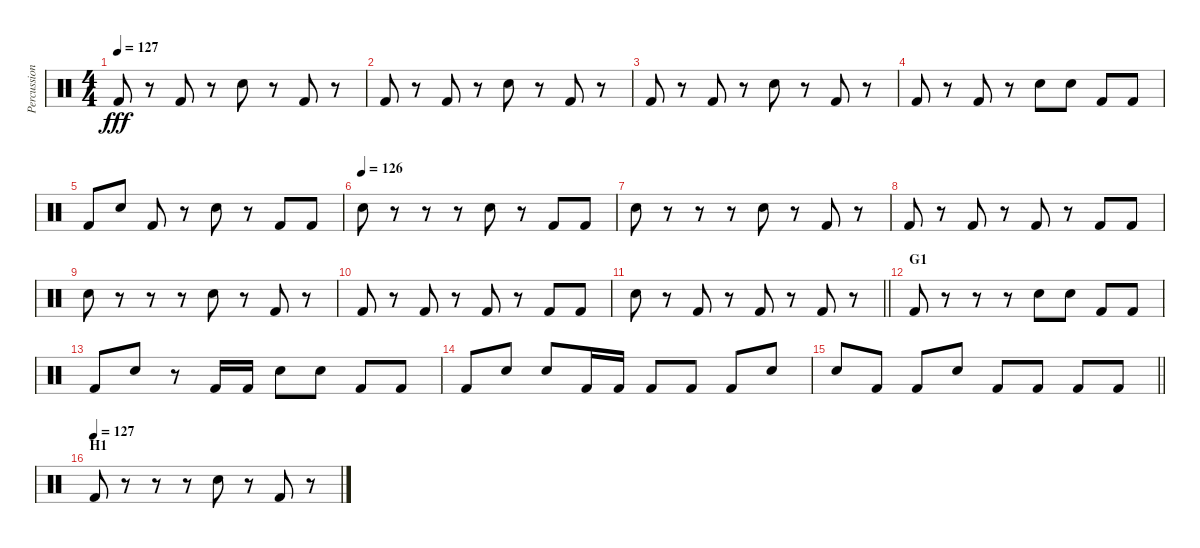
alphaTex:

\track ("Percussion" "Percussion") {instrument percussion}
\staff {score}
\articulation defaults
\ts (4 4)
\tempo 127
\clef neutral
\ks c "Kick (hit) 2".8{dy fff}
r.8 "Kick (hit) 2".8 r.8 "Electric Snare (hit)".8 r.8 "Kick (hit) 2".8 r.8 |
"Kick (hit) 2".8 r.8 "Kick (hit) 2".8 r.8 "Electric Snare (hit)".8 r.8 "Kick (hit) 2".8 r.8 |
"Kick (hit) 2".8 r.8 "Kick (hit) 2".8 r.8 "Electric Snare (hit)".8 r.8 "Kick (hit) 2".8 r.8 |
"Kick (hit) 2".8 r.8 "Kick (hit) 2".8 r.8 "Electric Snare (hit)".8 "Electric Snare (hit)".8 "Kick (hit) 2".8 "Kick (hit) 2".8 |
"Kick (hit) 2".8 "Electric Snare (hit)".8 "Kick (hit) 2".8 r.8 "Electric Snare (hit)".8 r.8 "Kick (hit) 2".8 "Kick (hit) 2".8 |
\tempo (126)
"Electric Snare (hit)".8 r.8 r.8 r.8 "Electric Snare (hit)".8 r.8 "Kick (hit) 2".8 "Kick (hit) 2".8 |
"Electric Snare (hit)".8 r.8 r.8 r.8 "Electric Snare (hit)".8 r.8 "Kick (hit) 2".8 r.8 |
"Kick (hit) 2".8 r.8 "Kick (hit) 2".8 r.8 "Kick (hit) 2".8 r.8 "Kick (hit) 2".8 "Kick (hit) 2".8 |
"Electric Snare (hit)".8 r.8 r.8 r.8 "Electric Snare (hit)".8 r.8 "Kick (hit) 2".8 r.8 |
"Kick (hit) 2".8 r.8 "Kick (hit) 2".8 r.8 "Kick (hit) 2".8 r.8 "Kick (hit) 2".8 "Kick (hit) 2".8 |
\barLineRight lightlight "Electric Snare (hit)".8
r.8 "Kick (hit) 2".8 r.8 "Kick (hit) 2".8 r.8 "Kick (hit) 2".8 r.8 |
\section ("" "G1")
"Kick (hit) 2".8 r.8 r.8 r.8 "Electric Snare (hit)".8 "Electric Snare (hit)".8 "Kick (hit) 2".8 "Kick (hit) 2".8 |
"Kick (hit) 2".8 "Electric Snare (hit)".8 r.8 "Kick (hit) 2".16 "Kick (hit) 2".16 "Electric Snare (hit)".8 "Electric Snare (hit)".8 "Kick (hit) 2".8 "Kick (hit) 2".8 |
"Kick (hit) 2".8 "Electric Snare (hit)".8 "Electric Snare (hit)".8 "Kick (hit) 2".16 "Kick (hit) 2".16 "Kick (hit) 2".8 "Kick (hit) 2".8 "Kick (hit) 2".8 "Electric Snare (hit)".8 |
\barLineRight lightlight "Electric Snare (hit)".8 "Kick (hit) 2".8 "Kick (hit) 2".8 "Electric Snare (hit)".8 "Kick (hit) 2".8 "Kick (hit) 2".8 "Kick (hit) 2".8 "Kick (hit) 2".8
|
\section ("" "H1")
\tempo (127)
"Kick (hit) 2".8 r.8 r.8 r.8 "Electric Snare (hit)".8 r.8 "Kick (hit) 2".8 r.8
